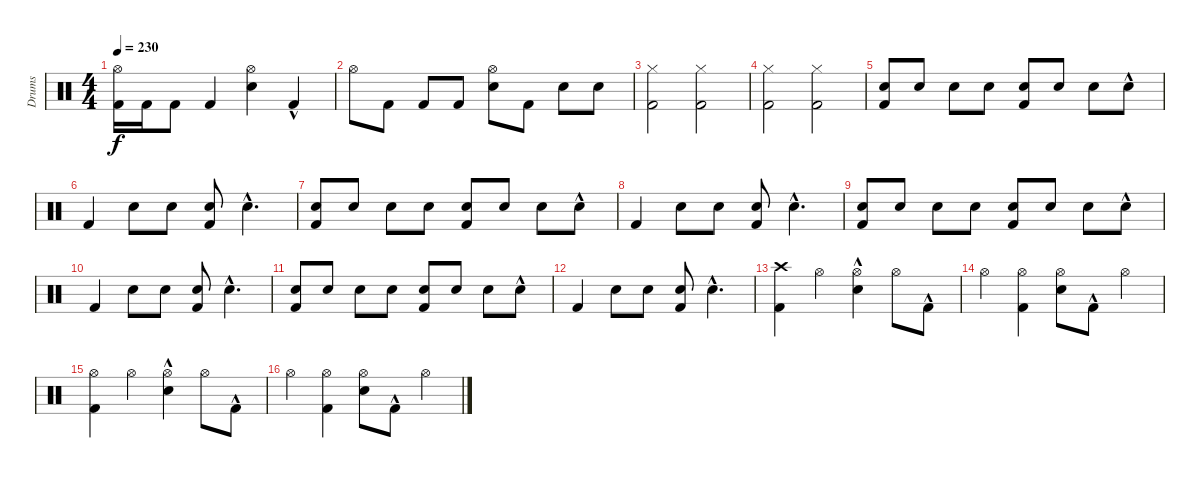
\track ("Drums" "Drums") {instrument percussion}
\staff {score}
\articulation defaults
\ts (4 4)
\tempo 230
\clef neutral
\ks c
("Hi-Hat (open)" "Kick (hit) 2").16{dy f} "Kick (hit) 2".16 "Kick (hit) 2".8 "Kick (hit) 2".4 ("Hi-Hat (open)" "Electric Snare (hit)").4 "Kick (hit) 2"{hac}.4 |
"Hi-Hat (open)".8 "Kick (hit) 2".8 "Kick (hit) 2".8 "Kick (hit) 2".8 ("Hi-Hat (open)" "Electric Snare (hit)").8 "Kick (hit) 2".8 "Electric Snare (hit)".8 "Electric Snare (hit)".8 |
("Hi-Hat (closed)" "Kick (hit) 2").2 ("Hi-Hat (closed)" "Kick (hit) 2").2 |
("Hi-Hat (closed)" "Kick (hit) 2").2 ("Hi-Hat (closed)" "Kick (hit) 2").2 |
("Kick (hit) 2" "Electric Snare (hit)").8 "Electric Snare (hit)".8 "Electric Snare (hit)".8 "Electric Snare (hit)".8 ("Kick (hit) 2" "Electric Snare (hit)").8 "Electric Snare (hit)".8 "Electric Snare (hit)".8 "Electric Snare (hit)"{hac}.8 |
"Kick (hit) 2".4 "Electric Snare (hit)".8 "Electric Snare (hit)".8 ("Kick (hit) 2" "Electric Snare (hit)").8 "Electric Snare (hit)"{hac}.4{d} |
("Kick (hit) 2" "Electric Snare (hit)").8 "Electric Snare (hit)".8 "Electric Snare (hit)".8 "Electric Snare (hit)".8 ("Kick (hit) 2" "Electric Snare (hit)").8 "Electric Snare (hit)".8 "Electric Snare (hit)".8 "Electric Snare (hit)"{hac}.8 |
"Kick (hit) 2".4 "Electric Snare (hit)".8 "Electric Snare (hit)".8 ("Kick (hit) 2" "Electric Snare (hit)").8 "Electric Snare (hit)"{hac}.4{d} |
("Kick (hit) 2" "Electric Snare (hit)").8 "Electric Snare (hit)".8 "Electric Snare (hit)".8 "Electric Snare (hit)".8 ("Kick (hit) 2" "Electric Snare (hit)").8 "Electric Snare (hit)".8 "Electric Snare (hit)".8 "Electric Snare (hit)"{hac}.8 |
"Kick (hit) 2".4 "Electric Snare (hit)".8 "Electric Snare (hit)".8 ("Kick (hit) 2" "Electric Snare (hit)").8 "Electric Snare (hit)"{hac}.4{d} |
("Kick (hit) 2" "Electric Snare (hit)").8 "Electric Snare (hit)".8 "Electric Snare (hit)".8 "Electric Snare (hit)".8 ("Kick (hit) 2" "Electric Snare (hit)").8 "Electric Snare (hit)".8 "Electric Snare (hit)".8 "Electric Snare (hit)"{hac}.8 |
"Kick (hit) 2".4 "Electric Snare (hit)".8 "Electric Snare (hit)".8 ("Kick (hit) 2" "Electric Snare (hit)").8 "Electric Snare (hit)"{hac}.4{d} |
("Crash high (hit)" "Kick (hit) 2").4 "Hi-Hat (open)".4 ("Hi-Hat (open)" "Electric Snare (hit)"{hac}).4 "Hi-Hat (open)".8 "Kick (hit) 2"{hac}.8 |
"Hi-Hat (open)".4 ("Hi-Hat (open)" "Kick (hit) 2").4 ("Hi-Hat (open)" "Electric Snare (hit)").8 "Kick (hit) 2"{hac}.8 "Hi-Hat (open)".4 |
("Hi-Hat (open)" "Kick (hit) 2").4 "Hi-Hat (open)".4 ("Hi-Hat (open)" "Electric Snare (hit)"{hac}).4 "Hi-Hat (open)".8 "Kick (hit) 2"{hac}.8 |
"Hi-Hat (open)".4 ("Hi-Hat (open)" "Kick (hit) 2").4 ("Hi-Hat (open)" "Electric Snare (hit)").8 "Kick (hit) 2"{hac}.8 "Hi-Hat (open)".4
